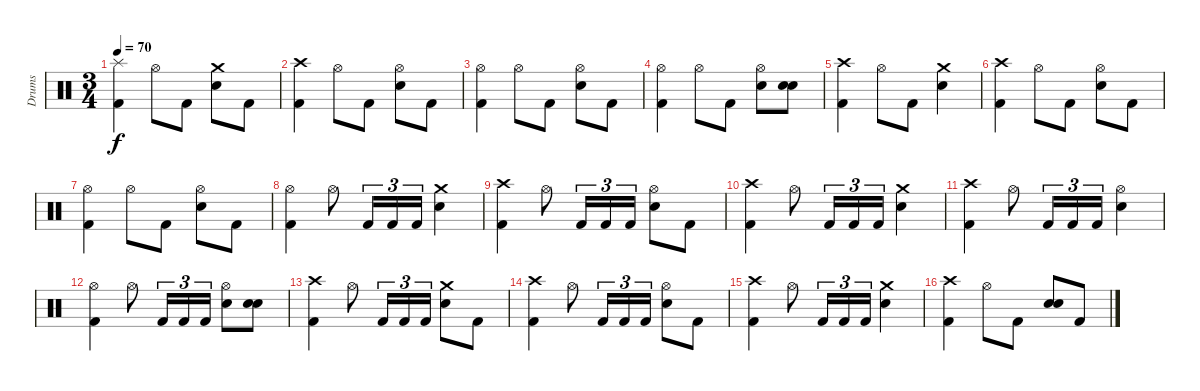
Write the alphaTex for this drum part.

\track ("Drums" "Drums") {instrument percussion}
\staff {score}
\articulation defaults
\ts (3 4)
\tempo 70
\clef neutral
\ks c
("Splash (hit)" "Kick (hit) 2").4{dy f} "Hi-Hat (open)".8 "Kick (hit) 2".8 ("Crash medium (hit)" "Electric Snare (hit)").8 "Kick (hit) 2".8 |
("Crash high (hit)" "Kick (hit) 2").4 "Hi-Hat (open)".8 "Kick (hit) 2".8 ("Hi-Hat (open)" "Electric Snare (hit)").8 "Kick (hit) 2".8 |
("Hi-Hat (open)" "Kick (hit) 2").4 "Hi-Hat (open)".8 "Kick (hit) 2".8 ("Hi-Hat (open)" "Electric Snare (hit)").8 "Kick (hit) 2".8 |
("Hi-Hat (open)" "Kick (hit) 2").4 "Hi-Hat (open)".8 "Kick (hit) 2".8 ("Hi-Hat (open)" "Electric Snare (hit)").8 ("Electric Snare (hit)" "Electric Snare (hit)").8{bu 60} |
("Crash high (hit)" "Kick (hit) 2").4 "Hi-Hat (open)".8 "Kick (hit) 2".8 ("Crash medium (hit)" "Electric Snare (hit)").4 |
("Crash high (hit)" "Kick (hit) 2").4 "Hi-Hat (open)".8 "Kick (hit) 2".8 ("Hi-Hat (open)" "Electric Snare (hit)").8 "Kick (hit) 2".8 |
("Hi-Hat (open)" "Kick (hit) 2").4 "Hi-Hat (open)".8 "Kick (hit) 2".8 ("Hi-Hat (open)" "Electric Snare (hit)").8 "Kick (hit) 2".8 |
("Hi-Hat (open)" "Kick (hit) 2").4 "Hi-Hat (open)".8 "Kick (hit) 2".16{tu (3 2)} "Kick (hit) 2".16{tu (3 2)} "Kick (hit) 2".16{tu (3 2)} ("Crash medium (hit)" "Electric Snare (hit)").4 |
("Crash high (hit)" "Kick (hit) 2").4 "Hi-Hat (open)".8 "Kick (hit) 2".16{tu (3 2)} "Kick (hit) 2".16{tu (3 2)} "Kick (hit) 2".16{tu (3 2)} ("Hi-Hat (open)" "Electric Snare (hit)").8 "Kick (hit) 2".8 |
("Crash high (hit)" "Kick (hit) 2").4 "Hi-Hat (open)".8 "Kick (hit) 2".16{tu (3 2)} "Kick (hit) 2".16{tu (3 2)} "Kick (hit) 2".16{tu (3 2)} ("Crash medium (hit)" "Electric Snare (hit)").4 |
("Crash high (hit)" "Kick (hit) 2").4 "Hi-Hat (open)".8 "Kick (hit) 2".16{tu (3 2)} "Kick (hit) 2".16{tu (3 2)} "Kick (hit) 2".16{tu (3 2)} ("Hi-Hat (open)" "Electric Snare (hit)").4 |
("Hi-Hat (open)" "Kick (hit) 2").4 "Hi-Hat (open)".8 "Kick (hit) 2".16{tu (3 2)} "Kick (hit) 2".16{tu (3 2)} "Kick (hit) 2".16{tu (3 2)} ("Hi-Hat (open)" "Electric Snare (hit)").8 ("Electric Snare (hit)" "Electric Snare (hit)").8{bu 60} |
("Crash high (hit)" "Kick (hit) 2").4 "Hi-Hat (open)".8 "Kick (hit) 2".16{tu (3 2)} "Kick (hit) 2".16{tu (3 2)} "Kick (hit) 2".16{tu (3 2)} ("Crash medium (hit)" "Electric Snare (hit)").8 "Kick (hit) 2".8 |
("Crash high (hit)" "Kick (hit) 2").4 "Hi-Hat (open)".8 "Kick (hit) 2".16{tu (3 2)} "Kick (hit) 2".16{tu (3 2)} "Kick (hit) 2".16{tu (3 2)} ("Hi-Hat (open)" "Electric Snare (hit)").8 "Kick (hit) 2".8 |
("Crash high (hit)" "Kick (hit) 2").4 "Hi-Hat (open)".8 "Kick (hit) 2".16{tu (3 2)} "Kick (hit) 2".16{tu (3 2)} "Kick (hit) 2".16{tu (3 2)} ("Crash medium (hit)" "Electric Snare (hit)").4 |
("Crash high (hit)" "Kick (hit) 2").4 "Hi-Hat (open)".8 "Kick (hit) 2".8 ("Electric Snare (hit)" "Electric Snare (hit)").8{bu 60} "Kick (hit) 2".8
